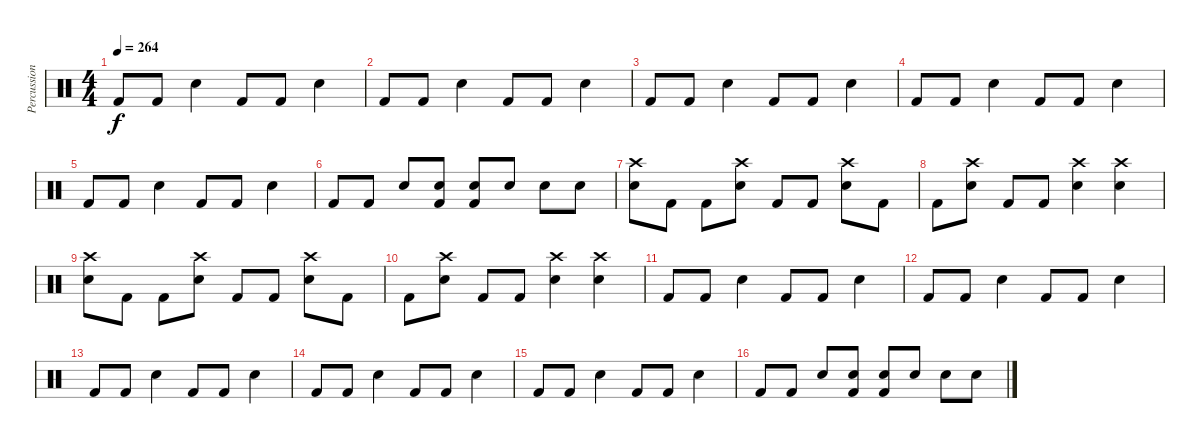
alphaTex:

\track ("Percussion" "Percussion") {instrument percussion}
\staff {score}
\articulation defaults
\ts (4 4)
\tempo 264
\clef neutral
\ks c "Kick (hit) 2".8{dy f} "Kick (hit) 2".8 "Snare (hit) 2".4 "Kick (hit) 2".8 "Kick (hit) 2".8 "Snare (hit) 2".4
|
"Kick (hit) 2".8 "Kick (hit) 2".8 "Snare (hit) 2".4 "Kick (hit) 2".8 "Kick (hit) 2".8 "Snare (hit) 2".4 |
"Kick (hit) 2".8 "Kick (hit) 2".8 "Snare (hit) 2".4 "Kick (hit) 2".8 "Kick (hit) 2".8 "Snare (hit) 2".4 |
"Kick (hit) 2".8 "Kick (hit) 2".8 "Snare (hit) 2".4 "Kick (hit) 2".8 "Kick (hit) 2".8 "Snare (hit) 2".4 |
"Kick (hit) 2".8 "Kick (hit) 2".8 "Snare (hit) 2".4 "Kick (hit) 2".8 "Kick (hit) 2".8 "Snare (hit) 2".4 |
"Kick (hit) 2".8 "Kick (hit) 2".8 "Snare (hit) 2".8 ("Kick (hit) 2" "Snare (hit) 2").8 ("Kick (hit) 2" "Snare (hit) 2").8 "Snare (hit) 2".8 "Snare (hit) 2".8 "Snare (hit) 2".8 |
("Crash high (hit)" "Snare (hit) 2").8 "Kick (hit) 2".8 "Kick (hit) 2".8 ("Crash high (hit)" "Snare (hit) 2").8 "Kick (hit) 2".8 "Kick (hit) 2".8 ("Crash high (hit)" "Snare (hit) 2").8 "Kick (hit) 2".8 |
"Kick (hit) 2".8 ("Crash high (hit)" "Snare (hit) 2").8 "Kick (hit) 2".8 "Kick (hit) 2".8 ("Crash high (hit)" "Snare (hit) 2").4 ("Crash high (hit)" "Snare (hit) 2").4 |
("Crash high (hit)" "Snare (hit) 2").8 "Kick (hit) 2".8 "Kick (hit) 2".8 ("Crash high (hit)" "Snare (hit) 2").8 "Kick (hit) 2".8 "Kick (hit) 2".8 ("Crash high (hit)" "Snare (hit) 2").8 "Kick (hit) 2".8 |
"Kick (hit) 2".8 ("Crash high (hit)" "Snare (hit) 2").8 "Kick (hit) 2".8 "Kick (hit) 2".8 ("Crash high (hit)" "Snare (hit) 2").4 ("Crash high (hit)" "Snare (hit) 2").4 |
"Kick (hit) 2".8 "Kick (hit) 2".8 "Snare (hit) 2".4 "Kick (hit) 2".8 "Kick (hit) 2".8 "Snare (hit) 2".4 |
"Kick (hit) 2".8 "Kick (hit) 2".8 "Snare (hit) 2".4 "Kick (hit) 2".8 "Kick (hit) 2".8 "Snare (hit) 2".4 |
"Kick (hit) 2".8 "Kick (hit) 2".8 "Snare (hit) 2".4 "Kick (hit) 2".8 "Kick (hit) 2".8 "Snare (hit) 2".4 |
"Kick (hit) 2".8 "Kick (hit) 2".8 "Snare (hit) 2".4 "Kick (hit) 2".8 "Kick (hit) 2".8 "Snare (hit) 2".4 |
"Kick (hit) 2".8 "Kick (hit) 2".8 "Snare (hit) 2".4 "Kick (hit) 2".8 "Kick (hit) 2".8 "Snare (hit) 2".4 |
"Kick (hit) 2".8 "Kick (hit) 2".8 "Snare (hit) 2".8 ("Kick (hit) 2" "Snare (hit) 2").8 ("Kick (hit) 2" "Snare (hit) 2").8 "Snare (hit) 2".8 "Snare (hit) 2".8 "Snare (hit) 2".8
